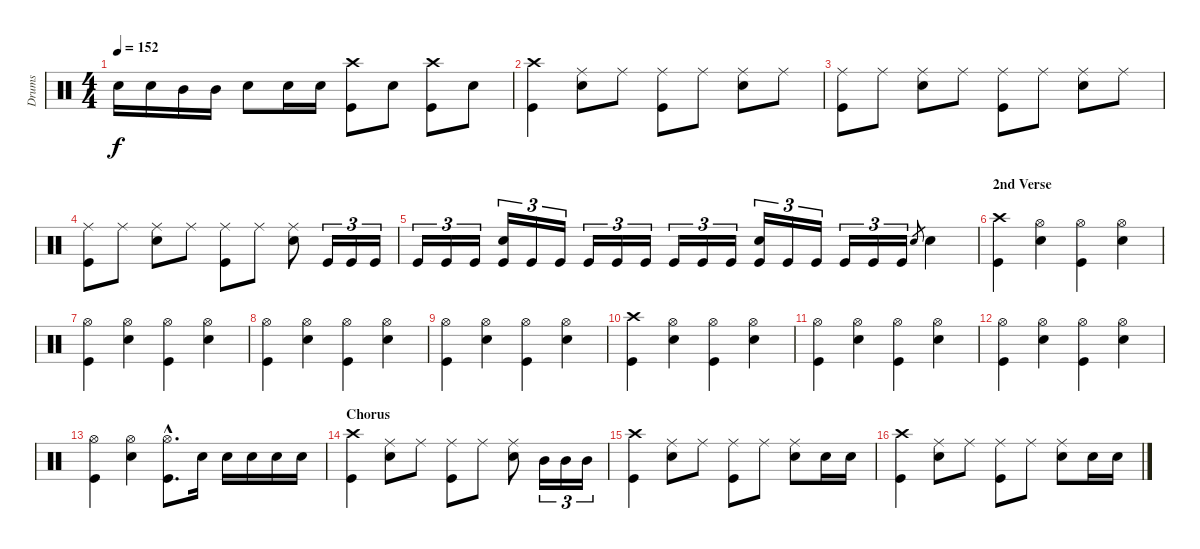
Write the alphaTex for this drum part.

\track ("Drums" "Drums") {instrument percussion}
\staff {score}
\articulation defaults
\ts (4 4)
\tempo 152
\clef neutral
\ks c "Snare (hit) 2".16{dy f} "Snare (hit) 2".16 "Mid Tom (hit)".16 "Mid Tom (hit)".16 "Snare (hit) 2".8 "Snare (hit) 2".16 "Snare (hit) 2".16
("Crash high (hit)" "Kick (hit)").8 "Snare (hit) 2".8 ("Crash high (hit)" "Kick (hit)").8 "Snare (hit) 2".8 |
("Crash high (hit)" "Kick (hit)").4 ("Ride (middle)" "Snare (hit) 2").8 "Ride (middle)".8 ("Ride (middle)" "Kick (hit)").8 "Ride (middle)".8 ("Ride (middle)" "Snare (hit) 2").8 "Ride (middle)".8 |
("Ride (middle)" "Kick (hit)").8 "Ride (middle)".8 ("Ride (middle)" "Snare (hit) 2").8 "Ride (middle)".8 ("Ride (middle)" "Kick (hit)").8 "Ride (middle)".8 ("Ride (middle)" "Snare (hit) 2").8 "Ride (middle)".8 |
("Ride (middle)" "Kick (hit)").8 "Ride (middle)".8 ("Ride (middle)" "Snare (hit) 2").8 "Ride (middle)".8 ("Ride (middle)" "Kick (hit)").8 "Ride (middle)".8 ("Ride (middle)" "Snare (hit) 2").8 "Kick (hit)".16{tu (3 2)} "Kick (hit)".16{tu (3 2)} "Kick (hit)".16{tu (3 2)} |
"Kick (hit)".16{tu (3 2)} "Kick (hit)".16{tu (3 2)} "Kick (hit)".16{tu (3 2)} ("Snare (hit) 2" "Kick (hit)").16{tu (3 2)} "Kick (hit)".16{tu (3 2)} "Kick (hit)".16{tu (3 2)} "Kick (hit)".16{tu (3 2)} "Kick (hit)".16{tu (3 2)} "Kick (hit)".16{tu (3 2)} "Kick (hit)".16{tu (3 2)} "Kick (hit)".16{tu (3 2)} "Kick (hit)".16{tu (3 2)} ("Snare (hit) 2" "Kick (hit)").16{tu (3 2)} "Kick (hit)".16{tu (3 2)} "Kick (hit)".16{tu (3 2)} "Kick (hit)".16{tu (3 2)} "Kick (hit)".16{tu (3 2)} "Kick (hit)".16{tu (3 2)} "Snare (hit) 2".8{gr} "Snare (hit) 2".4 |
\section ("" "2nd Verse")
("Crash high (hit)" "Kick (hit)").4 ("Hi-Hat (open)" "Snare (hit) 2").4 ("Hi-Hat (open)" "Kick (hit)").4 ("Hi-Hat (open)" "Snare (hit) 2").4 |
("Hi-Hat (open)" "Kick (hit)").4 ("Hi-Hat (open)" "Snare (hit) 2").4 ("Hi-Hat (open)" "Kick (hit)").4 ("Hi-Hat (open)" "Snare (hit) 2").4 |
("Hi-Hat (open)" "Kick (hit)").4 ("Hi-Hat (open)" "Snare (hit) 2").4 ("Hi-Hat (open)" "Kick (hit)").4 ("Hi-Hat (open)" "Snare (hit) 2").4 |
("Hi-Hat (open)" "Kick (hit)").4 ("Hi-Hat (open)" "Snare (hit) 2").4 ("Hi-Hat (open)" "Kick (hit)").4 ("Hi-Hat (open)" "Snare (hit) 2").4 |
("Crash high (hit)" "Kick (hit)").4 ("Hi-Hat (open)" "Snare (hit) 2").4 ("Hi-Hat (open)" "Kick (hit)").4 ("Hi-Hat (open)" "Snare (hit) 2").4 |
("Hi-Hat (open)" "Kick (hit)").4 ("Hi-Hat (open)" "Snare (hit) 2").4 ("Hi-Hat (open)" "Kick (hit)").4 ("Hi-Hat (open)" "Snare (hit) 2").4 |
("Hi-Hat (open)" "Kick (hit)").4 ("Hi-Hat (open)" "Snare (hit) 2").4 ("Hi-Hat (open)" "Kick (hit)").4 ("Hi-Hat (open)" "Snare (hit) 2").4 |
("Hi-Hat (open)" "Kick (hit)").4 ("Hi-Hat (open)" "Snare (hit) 2").4 ("Hi-Hat (open)"{hac} "Kick (hit)"{hac}).8{d} "Snare (hit) 2".16 "Snare (hit) 2".16 "Snare (hit) 2".16 "Snare (hit) 2".16 "Snare (hit) 2".16 |
\section ("" "Chorus")
("Crash high (hit)" "Kick (hit)").4 ("Ride (middle)" "Snare (hit) 2").8 "Ride (middle)".8 ("Ride (middle)" "Kick (hit)").8 "Ride (middle)".8 ("Ride (middle)" "Snare (hit) 2").8 "Mid Tom (hit)".16{tu (3 2)} "Mid Tom (hit)".16{tu (3 2)} "Mid Tom (hit)".16{tu (3 2)} |
("Crash high (hit)" "Kick (hit)").4 ("Ride (middle)" "Snare (hit) 2").8 "Ride (middle)".8 ("Ride (middle)" "Kick (hit)").8 "Ride (middle)".8 ("Ride (middle)" "Snare (hit) 2").8 "Snare (hit) 2".16 "Snare (hit) 2".16 |
("Crash high (hit)" "Kick (hit)").4 ("Ride (middle)" "Snare (hit) 2").8 "Ride (middle)".8 ("Ride (middle)" "Kick (hit)").8 "Ride (middle)".8 ("Ride (middle)" "Snare (hit) 2").8 "Snare (hit) 2".16 "Snare (hit) 2".16
